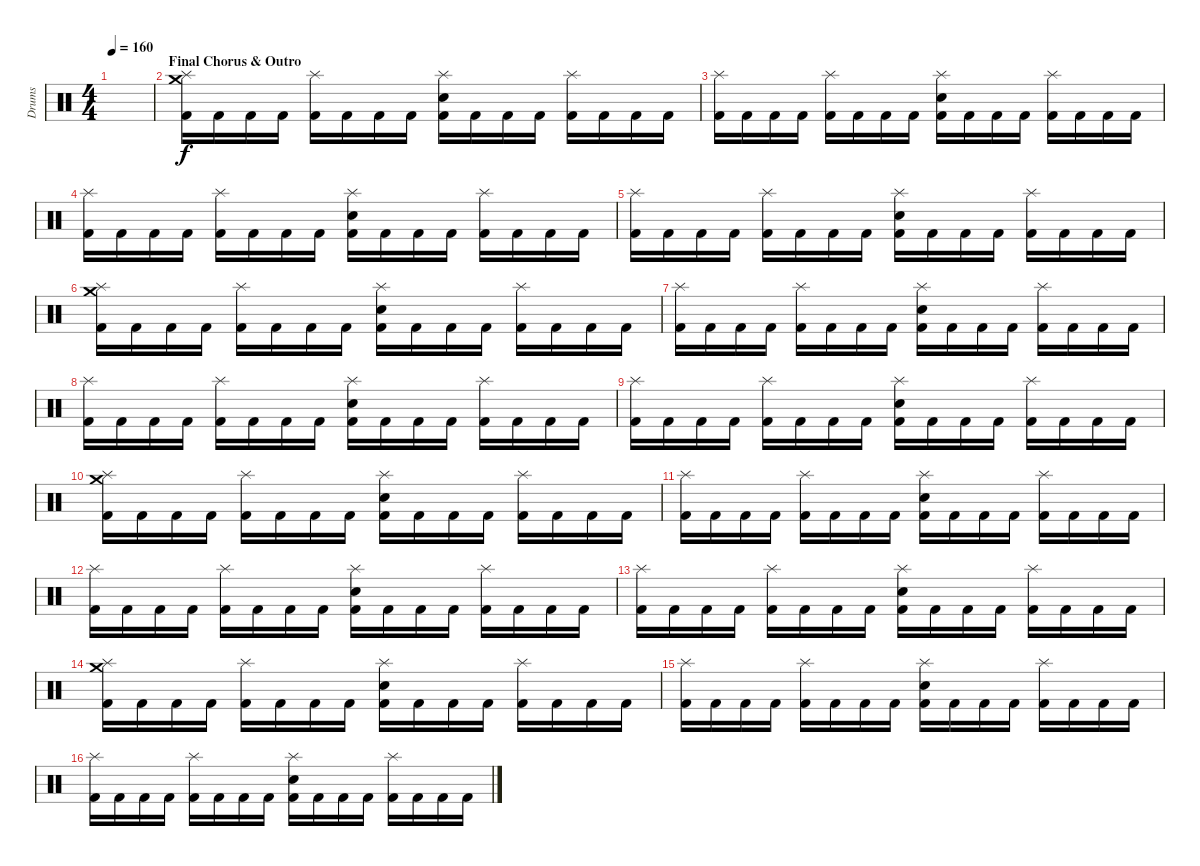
\track ("Drums" "Drums") {instrument percussion}
\staff {score}
\articulation defaults
\ts (4 4)
\tempo 160
\clef neutral
\ks c
|
\section ("" "Final Chorus & Outro")
("Splash (hit)" "Crash medium (hit)" "Kick (hit) 2").16 "Kick (hit) 2".16 "Kick (hit) 2".16 "Kick (hit) 2".16 ("Splash (hit)" "Kick (hit) 2").16 "Kick (hit) 2".16 "Kick (hit) 2".16 "Kick (hit) 2".16 ("Splash (hit)" "Snare (hit) 2" "Kick (hit) 2").16 "Kick (hit) 2".16 "Kick (hit) 2".16 "Kick (hit) 2".16 ("Splash (hit)" "Kick (hit) 2").16 "Kick (hit) 2".16 "Kick (hit) 2".16 "Kick (hit) 2".16 |
("Splash (hit)" "Kick (hit) 2").16 "Kick (hit) 2".16 "Kick (hit) 2".16 "Kick (hit) 2".16 ("Splash (hit)" "Kick (hit) 2").16 "Kick (hit) 2".16 "Kick (hit) 2".16 "Kick (hit) 2".16 ("Splash (hit)" "Snare (hit) 2" "Kick (hit) 2").16 "Kick (hit) 2".16 "Kick (hit) 2".16 "Kick (hit) 2".16 ("Splash (hit)" "Kick (hit) 2").16 "Kick (hit) 2".16 "Kick (hit) 2".16 "Kick (hit) 2".16 |
("Splash (hit)" "Kick (hit) 2").16 "Kick (hit) 2".16 "Kick (hit) 2".16 "Kick (hit) 2".16 ("Splash (hit)" "Kick (hit) 2").16 "Kick (hit) 2".16 "Kick (hit) 2".16 "Kick (hit) 2".16 ("Splash (hit)" "Snare (hit) 2" "Kick (hit) 2").16 "Kick (hit) 2".16 "Kick (hit) 2".16 "Kick (hit) 2".16 ("Splash (hit)" "Kick (hit) 2").16 "Kick (hit) 2".16 "Kick (hit) 2".16 "Kick (hit) 2".16 |
("Splash (hit)" "Kick (hit) 2").16 "Kick (hit) 2".16 "Kick (hit) 2".16 "Kick (hit) 2".16 ("Splash (hit)" "Kick (hit) 2").16 "Kick (hit) 2".16 "Kick (hit) 2".16 "Kick (hit) 2".16 ("Splash (hit)" "Snare (hit) 2" "Kick (hit) 2").16 "Kick (hit) 2".16 "Kick (hit) 2".16 "Kick (hit) 2".16 ("Splash (hit)" "Kick (hit) 2").16 "Kick (hit) 2".16 "Kick (hit) 2".16 "Kick (hit) 2".16 |
("Splash (hit)" "Crash medium (hit)" "Kick (hit) 2").16 "Kick (hit) 2".16 "Kick (hit) 2".16 "Kick (hit) 2".16 ("Splash (hit)" "Kick (hit) 2").16 "Kick (hit) 2".16 "Kick (hit) 2".16 "Kick (hit) 2".16 ("Splash (hit)" "Snare (hit) 2" "Kick (hit) 2").16 "Kick (hit) 2".16 "Kick (hit) 2".16 "Kick (hit) 2".16 ("Splash (hit)" "Kick (hit) 2").16 "Kick (hit) 2".16 "Kick (hit) 2".16 "Kick (hit) 2".16 |
("Splash (hit)" "Kick (hit) 2").16 "Kick (hit) 2".16 "Kick (hit) 2".16 "Kick (hit) 2".16 ("Splash (hit)" "Kick (hit) 2").16 "Kick (hit) 2".16 "Kick (hit) 2".16 "Kick (hit) 2".16 ("Splash (hit)" "Snare (hit) 2" "Kick (hit) 2").16 "Kick (hit) 2".16 "Kick (hit) 2".16 "Kick (hit) 2".16 ("Splash (hit)" "Kick (hit) 2").16 "Kick (hit) 2".16 "Kick (hit) 2".16 "Kick (hit) 2".16 |
("Splash (hit)" "Kick (hit) 2").16 "Kick (hit) 2".16 "Kick (hit) 2".16 "Kick (hit) 2".16 ("Splash (hit)" "Kick (hit) 2").16 "Kick (hit) 2".16 "Kick (hit) 2".16 "Kick (hit) 2".16 ("Splash (hit)" "Snare (hit) 2" "Kick (hit) 2").16 "Kick (hit) 2".16 "Kick (hit) 2".16 "Kick (hit) 2".16 ("Splash (hit)" "Kick (hit) 2").16 "Kick (hit) 2".16 "Kick (hit) 2".16 "Kick (hit) 2".16 |
("Splash (hit)" "Kick (hit) 2").16 "Kick (hit) 2".16 "Kick (hit) 2".16 "Kick (hit) 2".16 ("Splash (hit)" "Kick (hit) 2").16 "Kick (hit) 2".16 "Kick (hit) 2".16 "Kick (hit) 2".16 ("Splash (hit)" "Snare (hit) 2" "Kick (hit) 2").16 "Kick (hit) 2".16 "Kick (hit) 2".16 "Kick (hit) 2".16 ("Splash (hit)" "Kick (hit) 2").16 "Kick (hit) 2".16 "Kick (hit) 2".16 "Kick (hit) 2".16 |
("Splash (hit)" "Crash medium (hit)" "Kick (hit) 2").16 "Kick (hit) 2".16 "Kick (hit) 2".16 "Kick (hit) 2".16 ("Splash (hit)" "Kick (hit) 2").16 "Kick (hit) 2".16 "Kick (hit) 2".16 "Kick (hit) 2".16 ("Splash (hit)" "Snare (hit) 2" "Kick (hit) 2").16 "Kick (hit) 2".16 "Kick (hit) 2".16 "Kick (hit) 2".16 ("Splash (hit)" "Kick (hit) 2").16 "Kick (hit) 2".16 "Kick (hit) 2".16 "Kick (hit) 2".16 |
("Splash (hit)" "Kick (hit) 2").16 "Kick (hit) 2".16 "Kick (hit) 2".16 "Kick (hit) 2".16 ("Splash (hit)" "Kick (hit) 2").16 "Kick (hit) 2".16 "Kick (hit) 2".16 "Kick (hit) 2".16 ("Splash (hit)" "Snare (hit) 2" "Kick (hit) 2").16 "Kick (hit) 2".16 "Kick (hit) 2".16 "Kick (hit) 2".16 ("Splash (hit)" "Kick (hit) 2").16 "Kick (hit) 2".16 "Kick (hit) 2".16 "Kick (hit) 2".16 |
("Splash (hit)" "Kick (hit) 2").16 "Kick (hit) 2".16 "Kick (hit) 2".16 "Kick (hit) 2".16 ("Splash (hit)" "Kick (hit) 2").16 "Kick (hit) 2".16 "Kick (hit) 2".16 "Kick (hit) 2".16 ("Splash (hit)" "Snare (hit) 2" "Kick (hit) 2").16 "Kick (hit) 2".16 "Kick (hit) 2".16 "Kick (hit) 2".16 ("Splash (hit)" "Kick (hit) 2").16 "Kick (hit) 2".16 "Kick (hit) 2".16 "Kick (hit) 2".16 |
("Splash (hit)" "Kick (hit) 2").16 "Kick (hit) 2".16 "Kick (hit) 2".16 "Kick (hit) 2".16 ("Splash (hit)" "Kick (hit) 2").16 "Kick (hit) 2".16 "Kick (hit) 2".16 "Kick (hit) 2".16 ("Splash (hit)" "Snare (hit) 2" "Kick (hit) 2").16 "Kick (hit) 2".16 "Kick (hit) 2".16 "Kick (hit) 2".16 ("Splash (hit)" "Kick (hit) 2").16 "Kick (hit) 2".16 "Kick (hit) 2".16 "Kick (hit) 2".16 |
("Splash (hit)" "Crash medium (hit)" "Kick (hit) 2").16 "Kick (hit) 2".16 "Kick (hit) 2".16 "Kick (hit) 2".16 ("Splash (hit)" "Kick (hit) 2").16 "Kick (hit) 2".16 "Kick (hit) 2".16 "Kick (hit) 2".16 ("Splash (hit)" "Snare (hit) 2" "Kick (hit) 2").16 "Kick (hit) 2".16 "Kick (hit) 2".16 "Kick (hit) 2".16 ("Splash (hit)" "Kick (hit) 2").16 "Kick (hit) 2".16 "Kick (hit) 2".16 "Kick (hit) 2".16 |
("Splash (hit)" "Kick (hit) 2").16 "Kick (hit) 2".16 "Kick (hit) 2".16 "Kick (hit) 2".16 ("Splash (hit)" "Kick (hit) 2").16 "Kick (hit) 2".16 "Kick (hit) 2".16 "Kick (hit) 2".16 ("Splash (hit)" "Snare (hit) 2" "Kick (hit) 2").16 "Kick (hit) 2".16 "Kick (hit) 2".16 "Kick (hit) 2".16 ("Splash (hit)" "Kick (hit) 2").16 "Kick (hit) 2".16 "Kick (hit) 2".16 "Kick (hit) 2".16 |
("Splash (hit)" "Kick (hit) 2").16 "Kick (hit) 2".16 "Kick (hit) 2".16 "Kick (hit) 2".16 ("Splash (hit)" "Kick (hit) 2").16 "Kick (hit) 2".16 "Kick (hit) 2".16 "Kick (hit) 2".16 ("Splash (hit)" "Snare (hit) 2" "Kick (hit) 2").16 "Kick (hit) 2".16 "Kick (hit) 2".16 "Kick (hit) 2".16 ("Splash (hit)" "Kick (hit) 2").16 "Kick (hit) 2".16 "Kick (hit) 2".16 "Kick (hit) 2".16
